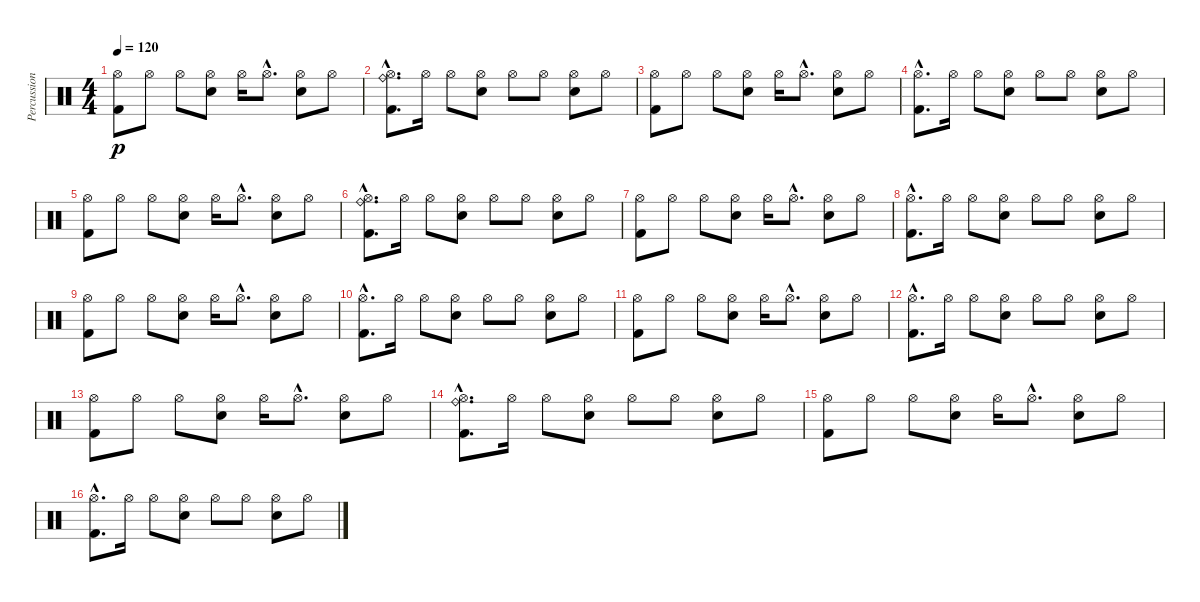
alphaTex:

\track ("Percussion" "Percussion") {instrument percussion}
\staff {score}
\articulation defaults
\ts (4 4)
\tempo 120
\clef neutral
\ks c
("Hi-Hat (open)" "Kick (hit) 2").8{dy p} "Hi-Hat (open)".8 "Hi-Hat (open)".8 ("Hi-Hat (open)" "Electric Snare (hit)").8 "Hi-Hat (open)".16 "Hi-Hat (open)"{hac}.8{d} ("Hi-Hat (open)" "Electric Snare (hit)").8 "Hi-Hat (open)".8 |
("Hi-Hat (open)"{hac} "Kick (hit) 2"{hac} "Ride (bell)"{hac}).8{d} "Hi-Hat (open)".16 "Hi-Hat (open)".8 ("Hi-Hat (open)" "Electric Snare (hit)").8 "Hi-Hat (open)".8 "Hi-Hat (open)".8 ("Hi-Hat (open)" "Electric Snare (hit)").8 "Hi-Hat (open)".8 |
("Hi-Hat (open)" "Kick (hit) 2").8 "Hi-Hat (open)".8 "Hi-Hat (open)".8 ("Hi-Hat (open)" "Electric Snare (hit)").8 "Hi-Hat (open)".16 "Hi-Hat (open)"{hac}.8{d} ("Hi-Hat (open)" "Electric Snare (hit)").8 "Hi-Hat (open)".8 |
("Hi-Hat (open)"{hac} "Kick (hit) 2"{hac}).8{d} "Hi-Hat (open)".16 "Hi-Hat (open)".8 ("Hi-Hat (open)" "Electric Snare (hit)").8 "Hi-Hat (open)".8 "Hi-Hat (open)".8 ("Hi-Hat (open)" "Electric Snare (hit)").8 "Hi-Hat (open)".8 |
("Hi-Hat (open)" "Kick (hit) 2").8 "Hi-Hat (open)".8 "Hi-Hat (open)".8 ("Hi-Hat (open)" "Electric Snare (hit)").8 "Hi-Hat (open)".16 "Hi-Hat (open)"{hac}.8{d} ("Hi-Hat (open)" "Electric Snare (hit)").8 "Hi-Hat (open)".8 |
("Hi-Hat (open)"{hac} "Kick (hit) 2"{hac} "Ride (bell)"{hac}).8{d} "Hi-Hat (open)".16 "Hi-Hat (open)".8 ("Hi-Hat (open)" "Electric Snare (hit)").8 "Hi-Hat (open)".8 "Hi-Hat (open)".8 ("Hi-Hat (open)" "Electric Snare (hit)").8 "Hi-Hat (open)".8 |
("Hi-Hat (open)" "Kick (hit) 2").8 "Hi-Hat (open)".8 "Hi-Hat (open)".8 ("Hi-Hat (open)" "Electric Snare (hit)").8 "Hi-Hat (open)".16 "Hi-Hat (open)"{hac}.8{d} ("Hi-Hat (open)" "Electric Snare (hit)").8 "Hi-Hat (open)".8 |
("Hi-Hat (open)"{hac} "Kick (hit) 2"{hac}).8{d} "Hi-Hat (open)".16 "Hi-Hat (open)".8 ("Hi-Hat (open)" "Electric Snare (hit)").8 "Hi-Hat (open)".8 "Hi-Hat (open)".8 ("Hi-Hat (open)" "Electric Snare (hit)").8 "Hi-Hat (open)".8 |
("Hi-Hat (open)" "Kick (hit) 2").8 "Hi-Hat (open)".8 "Hi-Hat (open)".8 ("Hi-Hat (open)" "Electric Snare (hit)").8 "Hi-Hat (open)".16 "Hi-Hat (open)"{hac}.8{d} ("Hi-Hat (open)" "Electric Snare (hit)").8 "Hi-Hat (open)".8 |
("Hi-Hat (open)"{hac} "Kick (hit) 2"{hac}).8{d} "Hi-Hat (open)".16 "Hi-Hat (open)".8 ("Hi-Hat (open)" "Electric Snare (hit)").8 "Hi-Hat (open)".8 "Hi-Hat (open)".8 ("Hi-Hat (open)" "Electric Snare (hit)").8 "Hi-Hat (open)".8 |
("Hi-Hat (open)" "Kick (hit) 2").8 "Hi-Hat (open)".8 "Hi-Hat (open)".8 ("Hi-Hat (open)" "Electric Snare (hit)").8 "Hi-Hat (open)".16 "Hi-Hat (open)"{hac}.8{d} ("Hi-Hat (open)" "Electric Snare (hit)").8 "Hi-Hat (open)".8 |
("Hi-Hat (open)"{hac} "Kick (hit) 2"{hac}).8{d} "Hi-Hat (open)".16 "Hi-Hat (open)".8 ("Hi-Hat (open)" "Electric Snare (hit)").8 "Hi-Hat (open)".8 "Hi-Hat (open)".8 ("Hi-Hat (open)" "Electric Snare (hit)").8 "Hi-Hat (open)".8 |
("Hi-Hat (open)" "Kick (hit) 2").8 "Hi-Hat (open)".8 "Hi-Hat (open)".8 ("Hi-Hat (open)" "Electric Snare (hit)").8 "Hi-Hat (open)".16 "Hi-Hat (open)"{hac}.8{d} ("Hi-Hat (open)" "Electric Snare (hit)").8 "Hi-Hat (open)".8 |
("Hi-Hat (open)"{hac} "Kick (hit) 2"{hac} "Ride (bell)"{hac}).8{d} "Hi-Hat (open)".16 "Hi-Hat (open)".8 ("Hi-Hat (open)" "Electric Snare (hit)").8 "Hi-Hat (open)".8 "Hi-Hat (open)".8 ("Hi-Hat (open)" "Electric Snare (hit)").8 "Hi-Hat (open)".8 |
("Hi-Hat (open)" "Kick (hit) 2").8 "Hi-Hat (open)".8 "Hi-Hat (open)".8 ("Hi-Hat (open)" "Electric Snare (hit)").8 "Hi-Hat (open)".16 "Hi-Hat (open)"{hac}.8{d} ("Hi-Hat (open)" "Electric Snare (hit)").8 "Hi-Hat (open)".8 |
("Hi-Hat (open)"{hac} "Kick (hit) 2"{hac}).8{d} "Hi-Hat (open)".16 "Hi-Hat (open)".8 ("Hi-Hat (open)" "Electric Snare (hit)").8 "Hi-Hat (open)".8 "Hi-Hat (open)".8 ("Hi-Hat (open)" "Electric Snare (hit)").8 "Hi-Hat (open)".8
